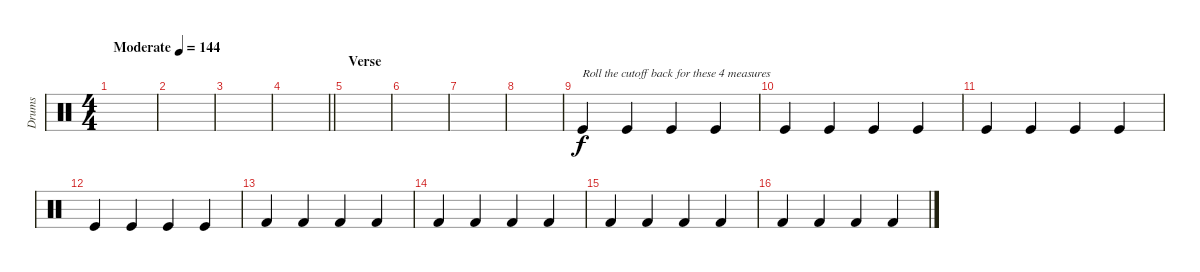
\track ("Drums" "Drums") {instrument percussion}
\staff {score}
\articulation defaults
\ts (4 4)
\tempo (144 "Moderate")
\clef neutral
\ks c
|
|
|
\barLineRight lightlight
|
\section ("" "Verse")
|
|
|
|
"Kick (hit)".4{txt "Roll the cutoff back for these 4 measures"} "Kick (hit)".4 "Kick (hit)".4 "Kick (hit)".4 |
"Kick (hit)".4 "Kick (hit)".4 "Kick (hit)".4 "Kick (hit)".4 |
"Kick (hit)".4 "Kick (hit)".4 "Kick (hit)".4 "Kick (hit)".4 |
"Kick (hit)".4 "Kick (hit)".4 "Kick (hit)".4 "Kick (hit)".4 |
"Kick (hit) 2".4 "Kick (hit) 2".4 "Kick (hit) 2".4 "Kick (hit) 2".4 |
"Kick (hit) 2".4 "Kick (hit) 2".4 "Kick (hit) 2".4 "Kick (hit) 2".4 |
"Kick (hit) 2".4 "Kick (hit) 2".4 "Kick (hit) 2".4 "Kick (hit) 2".4 |
"Kick (hit) 2".4 "Kick (hit) 2".4 "Kick (hit) 2".4 "Kick (hit) 2".4
